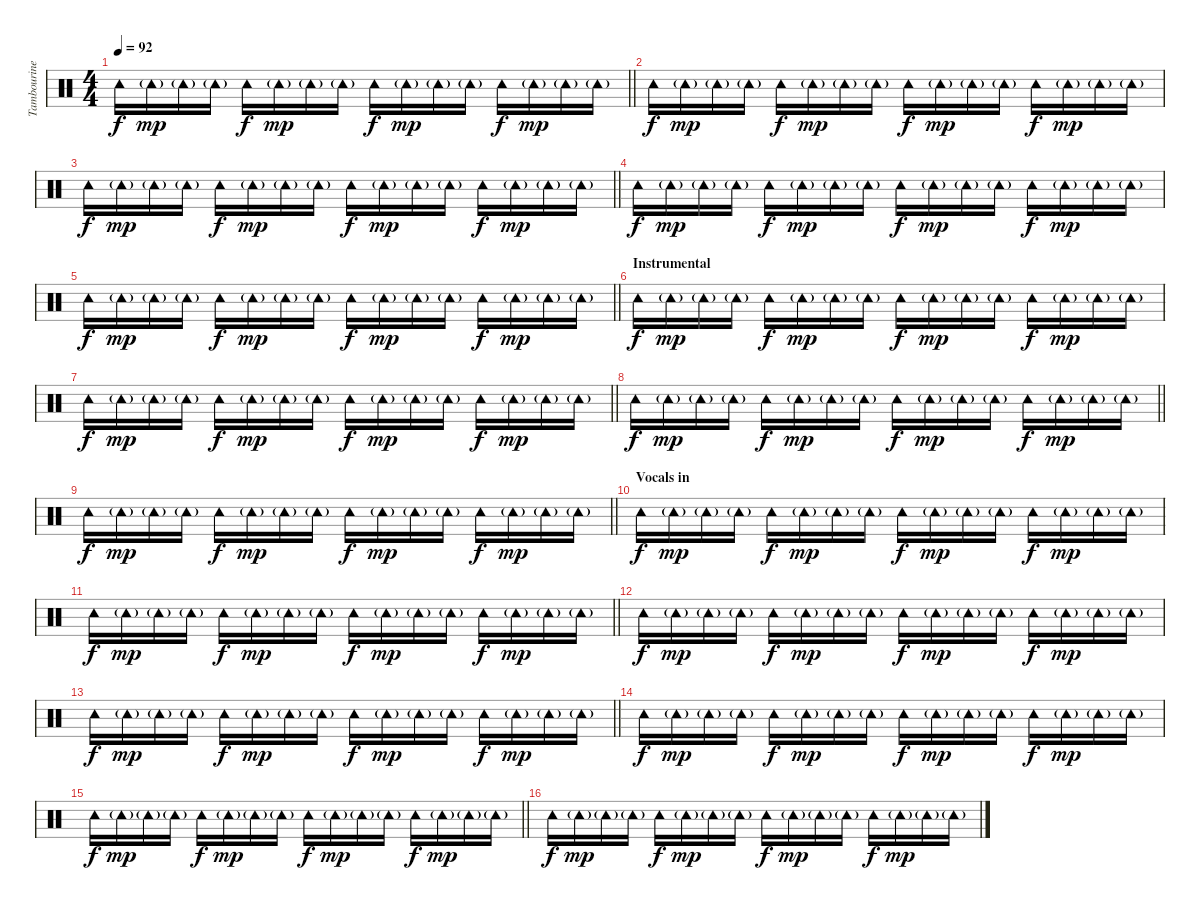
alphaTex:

\track ("Tambourine" "Tambourine") {instrument percussion}
\staff {score}
\articulation defaults
\ts (4 4)
\tempo 92
\clef neutral
\barLineRight lightlight
\ks c "Tambourine (hit)".16{dy f} "Tambourine (hit)"{g}.16{dy mp} "Tambourine (hit)"{g}.16 "Tambourine (hit)"{g}.16 "Tambourine (hit)".16{dy f} "Tambourine (hit)"{g}.16{dy mp} "Tambourine (hit)"{g}.16 "Tambourine (hit)"{g}.16 "Tambourine (hit)".16{dy f} "Tambourine (hit)"{g}.16{dy mp} "Tambourine (hit)"{g}.16 "Tambourine (hit)"{g}.16 "Tambourine (hit)".16{dy f} "Tambourine (hit)"{g}.16{dy mp} "Tambourine (hit)"{g}.16 "Tambourine (hit)"{g}.16
|
"Tambourine (hit)".16{dy f} "Tambourine (hit)"{g}.16{dy mp} "Tambourine (hit)"{g}.16 "Tambourine (hit)"{g}.16 "Tambourine (hit)".16{dy f} "Tambourine (hit)"{g}.16{dy mp} "Tambourine (hit)"{g}.16 "Tambourine (hit)"{g}.16 "Tambourine (hit)".16{dy f} "Tambourine (hit)"{g}.16{dy mp} "Tambourine (hit)"{g}.16 "Tambourine (hit)"{g}.16 "Tambourine (hit)".16{dy f} "Tambourine (hit)"{g}.16{dy mp} "Tambourine (hit)"{g}.16 "Tambourine (hit)"{g}.16 |
\barLineRight lightlight "Tambourine (hit)".16{dy f} "Tambourine (hit)"{g}.16{dy mp} "Tambourine (hit)"{g}.16 "Tambourine (hit)"{g}.16 "Tambourine (hit)".16{dy f} "Tambourine (hit)"{g}.16{dy mp} "Tambourine (hit)"{g}.16 "Tambourine (hit)"{g}.16 "Tambourine (hit)".16{dy f} "Tambourine (hit)"{g}.16{dy mp} "Tambourine (hit)"{g}.16 "Tambourine (hit)"{g}.16 "Tambourine (hit)".16{dy f} "Tambourine (hit)"{g}.16{dy mp} "Tambourine (hit)"{g}.16 "Tambourine (hit)"{g}.16
|
"Tambourine (hit)".16{dy f} "Tambourine (hit)"{g}.16{dy mp} "Tambourine (hit)"{g}.16 "Tambourine (hit)"{g}.16 "Tambourine (hit)".16{dy f} "Tambourine (hit)"{g}.16{dy mp} "Tambourine (hit)"{g}.16 "Tambourine (hit)"{g}.16 "Tambourine (hit)".16{dy f} "Tambourine (hit)"{g}.16{dy mp} "Tambourine (hit)"{g}.16 "Tambourine (hit)"{g}.16 "Tambourine (hit)".16{dy f} "Tambourine (hit)"{g}.16{dy mp} "Tambourine (hit)"{g}.16 "Tambourine (hit)"{g}.16 |
\barLineRight lightlight "Tambourine (hit)".16{dy f} "Tambourine (hit)"{g}.16{dy mp} "Tambourine (hit)"{g}.16 "Tambourine (hit)"{g}.16 "Tambourine (hit)".16{dy f} "Tambourine (hit)"{g}.16{dy mp} "Tambourine (hit)"{g}.16 "Tambourine (hit)"{g}.16 "Tambourine (hit)".16{dy f} "Tambourine (hit)"{g}.16{dy mp} "Tambourine (hit)"{g}.16 "Tambourine (hit)"{g}.16 "Tambourine (hit)".16{dy f} "Tambourine (hit)"{g}.16{dy mp} "Tambourine (hit)"{g}.16 "Tambourine (hit)"{g}.16
|
\section ("" "Instrumental")
"Tambourine (hit)".16{dy f} "Tambourine (hit)"{g}.16{dy mp} "Tambourine (hit)"{g}.16 "Tambourine (hit)"{g}.16 "Tambourine (hit)".16{dy f} "Tambourine (hit)"{g}.16{dy mp} "Tambourine (hit)"{g}.16 "Tambourine (hit)"{g}.16 "Tambourine (hit)".16{dy f} "Tambourine (hit)"{g}.16{dy mp} "Tambourine (hit)"{g}.16 "Tambourine (hit)"{g}.16 "Tambourine (hit)".16{dy f} "Tambourine (hit)"{g}.16{dy mp} "Tambourine (hit)"{g}.16 "Tambourine (hit)"{g}.16 |
\barLineRight lightlight "Tambourine (hit)".16{dy f} "Tambourine (hit)"{g}.16{dy mp} "Tambourine (hit)"{g}.16 "Tambourine (hit)"{g}.16 "Tambourine (hit)".16{dy f} "Tambourine (hit)"{g}.16{dy mp} "Tambourine (hit)"{g}.16 "Tambourine (hit)"{g}.16 "Tambourine (hit)".16{dy f} "Tambourine (hit)"{g}.16{dy mp} "Tambourine (hit)"{g}.16 "Tambourine (hit)"{g}.16 "Tambourine (hit)".16{dy f} "Tambourine (hit)"{g}.16{dy mp} "Tambourine (hit)"{g}.16 "Tambourine (hit)"{g}.16
|
\barLineRight lightlight "Tambourine (hit)".16{dy f} "Tambourine (hit)"{g}.16{dy mp} "Tambourine (hit)"{g}.16 "Tambourine (hit)"{g}.16 "Tambourine (hit)".16{dy f} "Tambourine (hit)"{g}.16{dy mp} "Tambourine (hit)"{g}.16 "Tambourine (hit)"{g}.16 "Tambourine (hit)".16{dy f} "Tambourine (hit)"{g}.16{dy mp} "Tambourine (hit)"{g}.16 "Tambourine (hit)"{g}.16 "Tambourine (hit)".16{dy f} "Tambourine (hit)"{g}.16{dy mp} "Tambourine (hit)"{g}.16 "Tambourine (hit)"{g}.16
|
\barLineRight lightlight "Tambourine (hit)".16{dy f} "Tambourine (hit)"{g}.16{dy mp} "Tambourine (hit)"{g}.16 "Tambourine (hit)"{g}.16 "Tambourine (hit)".16{dy f} "Tambourine (hit)"{g}.16{dy mp} "Tambourine (hit)"{g}.16 "Tambourine (hit)"{g}.16 "Tambourine (hit)".16{dy f} "Tambourine (hit)"{g}.16{dy mp} "Tambourine (hit)"{g}.16 "Tambourine (hit)"{g}.16 "Tambourine (hit)".16{dy f} "Tambourine (hit)"{g}.16{dy mp} "Tambourine (hit)"{g}.16 "Tambourine (hit)"{g}.16
|
\section ("" "Vocals in")
"Tambourine (hit)".16{dy f} "Tambourine (hit)"{g}.16{dy mp} "Tambourine (hit)"{g}.16 "Tambourine (hit)"{g}.16 "Tambourine (hit)".16{dy f} "Tambourine (hit)"{g}.16{dy mp} "Tambourine (hit)"{g}.16 "Tambourine (hit)"{g}.16 "Tambourine (hit)".16{dy f} "Tambourine (hit)"{g}.16{dy mp} "Tambourine (hit)"{g}.16 "Tambourine (hit)"{g}.16 "Tambourine (hit)".16{dy f} "Tambourine (hit)"{g}.16{dy mp} "Tambourine (hit)"{g}.16 "Tambourine (hit)"{g}.16 |
\barLineRight lightlight "Tambourine (hit)".16{dy f} "Tambourine (hit)"{g}.16{dy mp} "Tambourine (hit)"{g}.16 "Tambourine (hit)"{g}.16 "Tambourine (hit)".16{dy f} "Tambourine (hit)"{g}.16{dy mp} "Tambourine (hit)"{g}.16 "Tambourine (hit)"{g}.16 "Tambourine (hit)".16{dy f} "Tambourine (hit)"{g}.16{dy mp} "Tambourine (hit)"{g}.16 "Tambourine (hit)"{g}.16 "Tambourine (hit)".16{dy f} "Tambourine (hit)"{g}.16{dy mp} "Tambourine (hit)"{g}.16 "Tambourine (hit)"{g}.16
|
"Tambourine (hit)".16{dy f} "Tambourine (hit)"{g}.16{dy mp} "Tambourine (hit)"{g}.16 "Tambourine (hit)"{g}.16 "Tambourine (hit)".16{dy f} "Tambourine (hit)"{g}.16{dy mp} "Tambourine (hit)"{g}.16 "Tambourine (hit)"{g}.16 "Tambourine (hit)".16{dy f} "Tambourine (hit)"{g}.16{dy mp} "Tambourine (hit)"{g}.16 "Tambourine (hit)"{g}.16 "Tambourine (hit)".16{dy f} "Tambourine (hit)"{g}.16{dy mp} "Tambourine (hit)"{g}.16 "Tambourine (hit)"{g}.16 |
\barLineRight lightlight "Tambourine (hit)".16{dy f} "Tambourine (hit)"{g}.16{dy mp} "Tambourine (hit)"{g}.16 "Tambourine (hit)"{g}.16 "Tambourine (hit)".16{dy f} "Tambourine (hit)"{g}.16{dy mp} "Tambourine (hit)"{g}.16 "Tambourine (hit)"{g}.16 "Tambourine (hit)".16{dy f} "Tambourine (hit)"{g}.16{dy mp} "Tambourine (hit)"{g}.16 "Tambourine (hit)"{g}.16 "Tambourine (hit)".16{dy f} "Tambourine (hit)"{g}.16{dy mp} "Tambourine (hit)"{g}.16 "Tambourine (hit)"{g}.16
|
"Tambourine (hit)".16{dy f} "Tambourine (hit)"{g}.16{dy mp} "Tambourine (hit)"{g}.16 "Tambourine (hit)"{g}.16 "Tambourine (hit)".16{dy f} "Tambourine (hit)"{g}.16{dy mp} "Tambourine (hit)"{g}.16 "Tambourine (hit)"{g}.16 "Tambourine (hit)".16{dy f} "Tambourine (hit)"{g}.16{dy mp} "Tambourine (hit)"{g}.16 "Tambourine (hit)"{g}.16 "Tambourine (hit)".16{dy f} "Tambourine (hit)"{g}.16{dy mp} "Tambourine (hit)"{g}.16 "Tambourine (hit)"{g}.16 |
\barLineRight lightlight "Tambourine (hit)".16{dy f} "Tambourine (hit)"{g}.16{dy mp} "Tambourine (hit)"{g}.16 "Tambourine (hit)"{g}.16 "Tambourine (hit)".16{dy f} "Tambourine (hit)"{g}.16{dy mp} "Tambourine (hit)"{g}.16 "Tambourine (hit)"{g}.16 "Tambourine (hit)".16{dy f} "Tambourine (hit)"{g}.16{dy mp} "Tambourine (hit)"{g}.16 "Tambourine (hit)"{g}.16 "Tambourine (hit)".16{dy f} "Tambourine (hit)"{g}.16{dy mp} "Tambourine (hit)"{g}.16 "Tambourine (hit)"{g}.16
|
"Tambourine (hit)".16{dy f} "Tambourine (hit)"{g}.16{dy mp} "Tambourine (hit)"{g}.16 "Tambourine (hit)"{g}.16 "Tambourine (hit)".16{dy f} "Tambourine (hit)"{g}.16{dy mp} "Tambourine (hit)"{g}.16 "Tambourine (hit)"{g}.16 "Tambourine (hit)".16{dy f} "Tambourine (hit)"{g}.16{dy mp} "Tambourine (hit)"{g}.16 "Tambourine (hit)"{g}.16 "Tambourine (hit)".16{dy f} "Tambourine (hit)"{g}.16{dy mp} "Tambourine (hit)"{g}.16 "Tambourine (hit)"{g}.16
